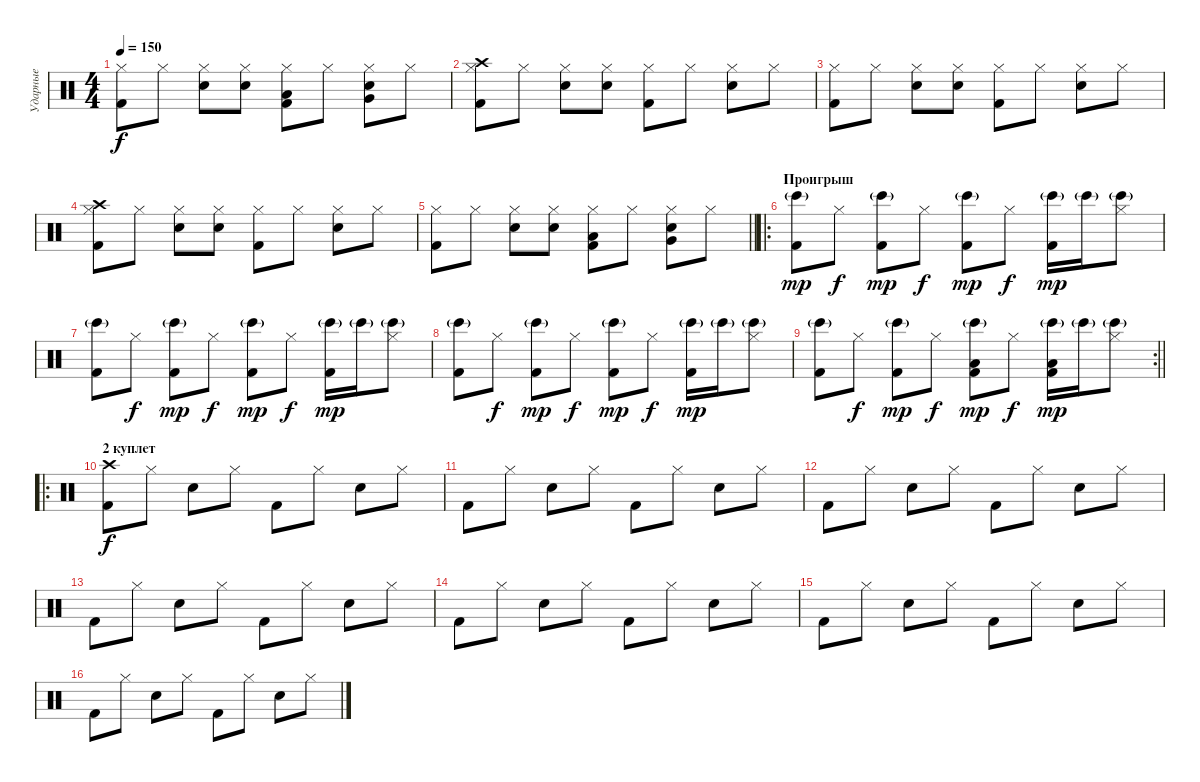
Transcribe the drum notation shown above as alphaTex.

\track ("Ударные" "Ударные") {instrument percussion}
\staff {score}
\articulation defaults
\ts (4 4)
\tempo 150
\clef neutral
\ks c
("Kick (hit) 2" "Hi-Hat (closed)").8{dy f} "Hi-Hat (closed)".8 ("Snare (hit) 2" "Hi-Hat (closed)").8 ("Snare (hit) 2" "Hi-Hat (closed)").8 ("Kick (hit) 2" "Hi-Hat (closed)" "Low Tom (hit)").8 "Hi-Hat (closed)".8 ("Snare (hit) 2" "Hi-Hat (closed)" "Very Low Tom (hit)").8 "Hi-Hat (closed)".8 |
("Kick (hit) 2" "Hi-Hat (closed)" "Crash high (hit)").8 "Hi-Hat (closed)".8 ("Snare (hit) 2" "Hi-Hat (closed)").8 ("Snare (hit) 2" "Hi-Hat (closed)").8 ("Kick (hit) 2" "Hi-Hat (closed)").8 "Hi-Hat (closed)".8 ("Snare (hit) 2" "Hi-Hat (closed)").8 "Hi-Hat (closed)".8 |
("Kick (hit) 2" "Hi-Hat (closed)").8 "Hi-Hat (closed)".8 ("Snare (hit) 2" "Hi-Hat (closed)").8 ("Snare (hit) 2" "Hi-Hat (closed)").8 ("Kick (hit) 2" "Hi-Hat (closed)").8 "Hi-Hat (closed)".8 ("Snare (hit) 2" "Hi-Hat (closed)").8 "Hi-Hat (closed)".8 |
("Kick (hit) 2" "Hi-Hat (closed)" "Crash high (hit)").8 "Hi-Hat (closed)".8 ("Snare (hit) 2" "Hi-Hat (closed)").8 ("Snare (hit) 2" "Hi-Hat (closed)").8 ("Kick (hit) 2" "Hi-Hat (closed)").8 "Hi-Hat (closed)".8 ("Snare (hit) 2" "Hi-Hat (closed)").8 "Hi-Hat (closed)".8 |
\barLineRight lightlight
("Kick (hit) 2" "Hi-Hat (closed)").8 "Hi-Hat (closed)".8 ("Snare (hit) 2" "Hi-Hat (closed)").8 ("Snare (hit) 2" "Hi-Hat (closed)").8 ("Kick (hit) 2" "Hi-Hat (closed)" "Low Tom (hit)").8 "Hi-Hat (closed)".8 ("Snare (hit) 2" "Hi-Hat (closed)" "Very Low Tom (hit)").8 "Hi-Hat (closed)".8 |
\ro
\section ("" "Проигрыш")
("Kick (hit) 2" "Bongo High (hit)"{g}).8{dy mp} "Hi-Hat (closed)".8{dy f} ("Kick (hit) 2" "Bongo High (hit)"{g}).8{dy mp} "Hi-Hat (closed)".8{dy f} ("Kick (hit) 2" "Bongo High (hit)"{g}).8{dy mp} "Hi-Hat (closed)".8{dy f} ("Kick (hit) 2" "Bongo High (hit)"{g}).16{dy mp} "Bongo High (hit)"{g}.16 ("Hi-Hat (closed)" "Bongo High (hit)"{g}).8 |
("Kick (hit) 2" "Bongo High (hit)"{g}).8 "Hi-Hat (closed)".8{dy f} ("Kick (hit) 2" "Bongo High (hit)"{g}).8{dy mp} "Hi-Hat (closed)".8{dy f} ("Kick (hit) 2" "Bongo High (hit)"{g}).8{dy mp} "Hi-Hat (closed)".8{dy f} ("Kick (hit) 2" "Bongo High (hit)"{g}).16{dy mp} "Bongo High (hit)"{g}.16 ("Hi-Hat (closed)" "Bongo High (hit)"{g}).8 |
("Kick (hit) 2" "Bongo High (hit)"{g}).8 "Hi-Hat (closed)".8{dy f} ("Kick (hit) 2" "Bongo High (hit)"{g}).8{dy mp} "Hi-Hat (closed)".8{dy f} ("Kick (hit) 2" "Bongo High (hit)"{g}).8{dy mp} "Hi-Hat (closed)".8{dy f} ("Kick (hit) 2" "Bongo High (hit)"{g}).16{dy mp} "Bongo High (hit)"{g}.16 ("Hi-Hat (closed)" "Bongo High (hit)"{g}).8 |
\rc 2
\barLineRight lightlight
("Kick (hit) 2" "Bongo High (hit)"{g}).8 "Hi-Hat (closed)".8{dy f} ("Kick (hit) 2" "Bongo High (hit)"{g}).8{dy mp} "Hi-Hat (closed)".8{dy f} ("Kick (hit) 2" "Bongo High (hit)"{g} "Low Tom (hit)").8{dy mp} "Hi-Hat (closed)".8{dy f} ("Kick (hit) 2" "Bongo High (hit)"{g} "Low Tom (hit)").16{dy mp} "Bongo High (hit)"{g}.16 ("Hi-Hat (closed)" "Bongo High (hit)"{g}).8 |
\ro
\section ("" "2 куплет")
("Kick (hit) 2" "Crash high (hit)").8{dy f} "Hi-Hat (closed)".8 "Snare (hit) 2".8 "Hi-Hat (closed)".8 "Kick (hit) 2".8 "Hi-Hat (closed)".8 "Snare (hit) 2".8 "Hi-Hat (closed)".8 |
"Kick (hit) 2".8 "Hi-Hat (closed)".8 "Snare (hit) 2".8 "Hi-Hat (closed)".8 "Kick (hit) 2".8 "Hi-Hat (closed)".8 "Snare (hit) 2".8 "Hi-Hat (closed)".8 |
"Kick (hit) 2".8 "Hi-Hat (closed)".8 "Snare (hit) 2".8 "Hi-Hat (closed)".8 "Kick (hit) 2".8 "Hi-Hat (closed)".8 "Snare (hit) 2".8 "Hi-Hat (closed)".8 |
"Kick (hit) 2".8 "Hi-Hat (closed)".8 "Snare (hit) 2".8 "Hi-Hat (closed)".8 "Kick (hit) 2".8 "Hi-Hat (closed)".8 "Snare (hit) 2".8 "Hi-Hat (closed)".8 |
"Kick (hit) 2".8 "Hi-Hat (closed)".8 "Snare (hit) 2".8 "Hi-Hat (closed)".8 "Kick (hit) 2".8 "Hi-Hat (closed)".8 "Snare (hit) 2".8 "Hi-Hat (closed)".8 |
"Kick (hit) 2".8 "Hi-Hat (closed)".8 "Snare (hit) 2".8 "Hi-Hat (closed)".8 "Kick (hit) 2".8 "Hi-Hat (closed)".8 "Snare (hit) 2".8 "Hi-Hat (closed)".8 |
"Kick (hit) 2".8 "Hi-Hat (closed)".8 "Snare (hit) 2".8 "Hi-Hat (closed)".8 "Kick (hit) 2".8 "Hi-Hat (closed)".8 "Snare (hit) 2".8 "Hi-Hat (closed)".8
